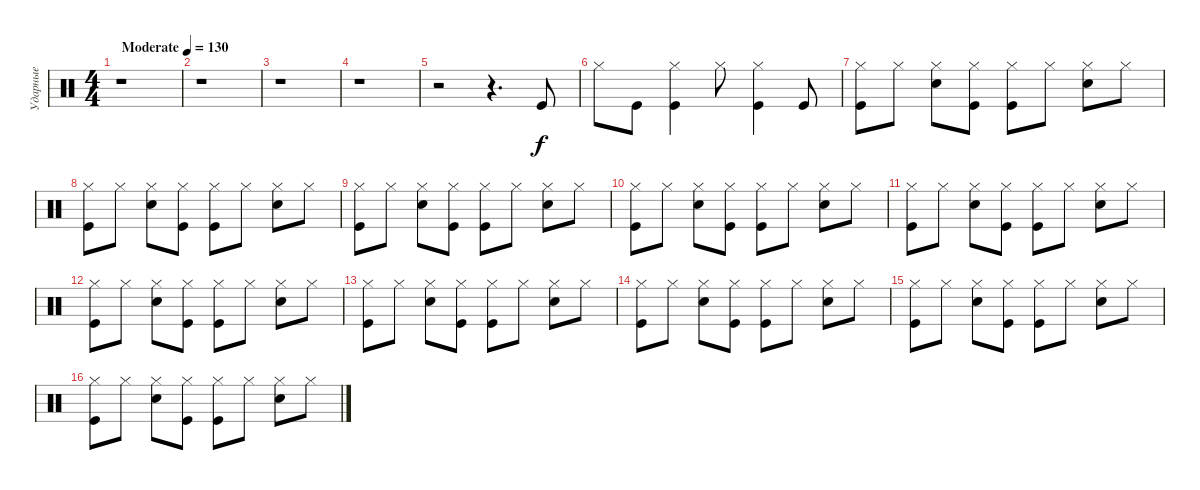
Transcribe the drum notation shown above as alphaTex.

\track ("Ударные" "Ударные") {instrument percussion}
\staff {score}
\articulation defaults
\ts (4 4)
\tempo (130 "Moderate")
\clef neutral
\ks c
r.1{dy f} |
r.1 |
r.1 |
r.1 |
r.2 r.4{d} "Kick (hit)".8 |
"Hi-Hat (closed)".8 "Kick (hit)".8 ("Hi-Hat (closed)" "Kick (hit)").4 "Hi-Hat (closed)".8 ("Hi-Hat (closed)" "Kick (hit)").4 "Kick (hit)".8 |
("Hi-Hat (closed)" "Kick (hit)").8 "Hi-Hat (closed)".8 ("Hi-Hat (closed)" "Snare (hit) 2").8 ("Hi-Hat (closed)" "Kick (hit)").8 ("Hi-Hat (closed)" "Kick (hit)").8 "Hi-Hat (closed)".8 ("Hi-Hat (closed)" "Snare (hit) 2").8 "Hi-Hat (closed)".8 |
("Hi-Hat (closed)" "Kick (hit)").8 "Hi-Hat (closed)".8 ("Hi-Hat (closed)" "Snare (hit) 2").8 ("Hi-Hat (closed)" "Kick (hit)").8 ("Hi-Hat (closed)" "Kick (hit)").8 "Hi-Hat (closed)".8 ("Hi-Hat (closed)" "Snare (hit) 2").8 "Hi-Hat (closed)".8 |
("Hi-Hat (closed)" "Kick (hit)").8 "Hi-Hat (closed)".8 ("Hi-Hat (closed)" "Snare (hit) 2").8 ("Hi-Hat (closed)" "Kick (hit)").8 ("Hi-Hat (closed)" "Kick (hit)").8 "Hi-Hat (closed)".8 ("Hi-Hat (closed)" "Snare (hit) 2").8 "Hi-Hat (closed)".8 |
("Hi-Hat (closed)" "Kick (hit)").8 "Hi-Hat (closed)".8 ("Hi-Hat (closed)" "Snare (hit) 2").8 ("Hi-Hat (closed)" "Kick (hit)").8 ("Hi-Hat (closed)" "Kick (hit)").8 "Hi-Hat (closed)".8 ("Hi-Hat (closed)" "Snare (hit) 2").8 "Hi-Hat (closed)".8 |
("Hi-Hat (closed)" "Kick (hit)").8 "Hi-Hat (closed)".8 ("Hi-Hat (closed)" "Snare (hit) 2").8 ("Hi-Hat (closed)" "Kick (hit)").8 ("Hi-Hat (closed)" "Kick (hit)").8 "Hi-Hat (closed)".8 ("Hi-Hat (closed)" "Snare (hit) 2").8 "Hi-Hat (closed)".8 |
("Hi-Hat (closed)" "Kick (hit)").8 "Hi-Hat (closed)".8 ("Hi-Hat (closed)" "Snare (hit) 2").8 ("Hi-Hat (closed)" "Kick (hit)").8 ("Hi-Hat (closed)" "Kick (hit)").8 "Hi-Hat (closed)".8 ("Hi-Hat (closed)" "Snare (hit) 2").8 "Hi-Hat (closed)".8 |
("Hi-Hat (closed)" "Kick (hit)").8 "Hi-Hat (closed)".8 ("Hi-Hat (closed)" "Snare (hit) 2").8 ("Hi-Hat (closed)" "Kick (hit)").8 ("Hi-Hat (closed)" "Kick (hit)").8 "Hi-Hat (closed)".8 ("Hi-Hat (closed)" "Snare (hit) 2").8 "Hi-Hat (closed)".8 |
("Hi-Hat (closed)" "Kick (hit)").8 "Hi-Hat (closed)".8 ("Hi-Hat (closed)" "Snare (hit) 2").8 ("Hi-Hat (closed)" "Kick (hit)").8 ("Hi-Hat (closed)" "Kick (hit)").8 "Hi-Hat (closed)".8 ("Hi-Hat (closed)" "Snare (hit) 2").8 "Hi-Hat (closed)".8 |
("Hi-Hat (closed)" "Kick (hit)").8 "Hi-Hat (closed)".8 ("Hi-Hat (closed)" "Snare (hit) 2").8 ("Hi-Hat (closed)" "Kick (hit)").8 ("Hi-Hat (closed)" "Kick (hit)").8 "Hi-Hat (closed)".8 ("Hi-Hat (closed)" "Snare (hit) 2").8 "Hi-Hat (closed)".8 |
("Hi-Hat (closed)" "Kick (hit)").8 "Hi-Hat (closed)".8 ("Hi-Hat (closed)" "Snare (hit) 2").8 ("Hi-Hat (closed)" "Kick (hit)").8 ("Hi-Hat (closed)" "Kick (hit)").8 "Hi-Hat (closed)".8 ("Hi-Hat (closed)" "Snare (hit) 2").8 "Hi-Hat (closed)".8
